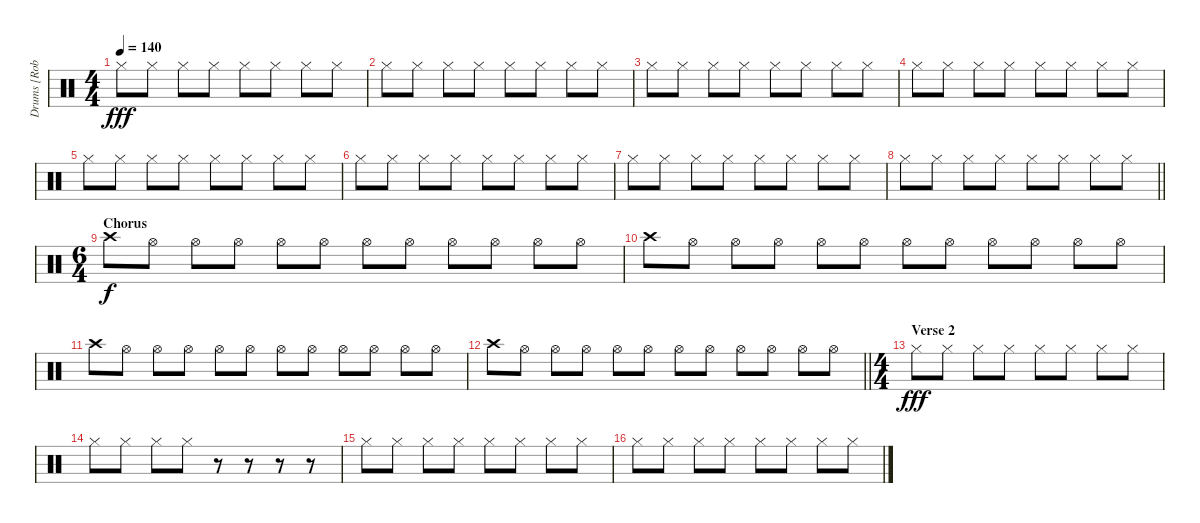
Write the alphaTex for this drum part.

\track ("Drums [Rob Bourdon]" "Drums [Rob") {instrument percussion}
\staff {score}
\articulation defaults
\ts (4 4)
\tempo 140
\clef neutral
\ks c "Hi-Hat (closed)".8{dy fff} "Hi-Hat (closed)".8 "Hi-Hat (closed)".8 "Hi-Hat (closed)".8 "Hi-Hat (closed)".8 "Hi-Hat (closed)".8 "Hi-Hat (closed)".8 "Hi-Hat (closed)".8
|
"Hi-Hat (closed)".8 "Hi-Hat (closed)".8 "Hi-Hat (closed)".8 "Hi-Hat (closed)".8 "Hi-Hat (closed)".8 "Hi-Hat (closed)".8 "Hi-Hat (closed)".8 "Hi-Hat (closed)".8 |
"Hi-Hat (closed)".8 "Hi-Hat (closed)".8 "Hi-Hat (closed)".8 "Hi-Hat (closed)".8 "Hi-Hat (closed)".8 "Hi-Hat (closed)".8 "Hi-Hat (closed)".8 "Hi-Hat (closed)".8 |
"Hi-Hat (closed)".8 "Hi-Hat (closed)".8 "Hi-Hat (closed)".8 "Hi-Hat (closed)".8 "Hi-Hat (closed)".8 "Hi-Hat (closed)".8 "Hi-Hat (closed)".8 "Hi-Hat (closed)".8 |
"Hi-Hat (closed)".8 "Hi-Hat (closed)".8 "Hi-Hat (closed)".8 "Hi-Hat (closed)".8 "Hi-Hat (closed)".8 "Hi-Hat (closed)".8 "Hi-Hat (closed)".8 "Hi-Hat (closed)".8 |
"Hi-Hat (closed)".8 "Hi-Hat (closed)".8 "Hi-Hat (closed)".8 "Hi-Hat (closed)".8 "Hi-Hat (closed)".8 "Hi-Hat (closed)".8 "Hi-Hat (closed)".8 "Hi-Hat (closed)".8 |
"Hi-Hat (closed)".8 "Hi-Hat (closed)".8 "Hi-Hat (closed)".8 "Hi-Hat (closed)".8 "Hi-Hat (closed)".8 "Hi-Hat (closed)".8 "Hi-Hat (closed)".8 "Hi-Hat (closed)".8 |
\barLineRight lightlight "Hi-Hat (closed)".8 "Hi-Hat (closed)".8 "Hi-Hat (closed)".8 "Hi-Hat (closed)".8 "Hi-Hat (closed)".8 "Hi-Hat (closed)".8 "Hi-Hat (closed)".8 "Hi-Hat (closed)".8
|
\ts (6 4)
\section ("" "Chorus")
"Crash high (hit)".8{dy f} "Hi-Hat (open)".8 "Hi-Hat (open)".8 "Hi-Hat (open)".8 "Hi-Hat (open)".8 "Hi-Hat (open)".8 "Hi-Hat (open)".8 "Hi-Hat (open)".8 "Hi-Hat (open)".8 "Hi-Hat (open)".8 "Hi-Hat (open)".8 "Hi-Hat (open)".8 |
"Crash high (hit)".8 "Hi-Hat (open)".8 "Hi-Hat (open)".8 "Hi-Hat (open)".8 "Hi-Hat (open)".8 "Hi-Hat (open)".8 "Hi-Hat (open)".8 "Hi-Hat (open)".8 "Hi-Hat (open)".8 "Hi-Hat (open)".8 "Hi-Hat (open)".8 "Hi-Hat (open)".8 |
"Crash high (hit)".8 "Hi-Hat (open)".8 "Hi-Hat (open)".8 "Hi-Hat (open)".8 "Hi-Hat (open)".8 "Hi-Hat (open)".8 "Hi-Hat (open)".8 "Hi-Hat (open)".8 "Hi-Hat (open)".8 "Hi-Hat (open)".8 "Hi-Hat (open)".8 "Hi-Hat (open)".8 |
\barLineRight lightlight "Crash high (hit)".8 "Hi-Hat (open)".8 "Hi-Hat (open)".8 "Hi-Hat (open)".8 "Hi-Hat (open)".8 "Hi-Hat (open)".8 "Hi-Hat (open)".8 "Hi-Hat (open)".8 "Hi-Hat (open)".8 "Hi-Hat (open)".8 "Hi-Hat (open)".8 "Hi-Hat (open)".8
|
\ts (4 4)
\section ("" "Verse 2")
"Hi-Hat (closed)".8{dy fff} "Hi-Hat (closed)".8 "Hi-Hat (closed)".8 "Hi-Hat (closed)".8 "Hi-Hat (closed)".8 "Hi-Hat (closed)".8 "Hi-Hat (closed)".8 "Hi-Hat (closed)".8 |
"Hi-Hat (closed)".8 "Hi-Hat (closed)".8 "Hi-Hat (closed)".8 "Hi-Hat (closed)".8 r.8 r.8 r.8 r.8 |
"Hi-Hat (closed)".8 "Hi-Hat (closed)".8 "Hi-Hat (closed)".8 "Hi-Hat (closed)".8 "Hi-Hat (closed)".8 "Hi-Hat (closed)".8 "Hi-Hat (closed)".8 "Hi-Hat (closed)".8 |
"Hi-Hat (closed)".8 "Hi-Hat (closed)".8 "Hi-Hat (closed)".8 "Hi-Hat (closed)".8 "Hi-Hat (closed)".8 "Hi-Hat (closed)".8 "Hi-Hat (closed)".8 "Hi-Hat (closed)".8
